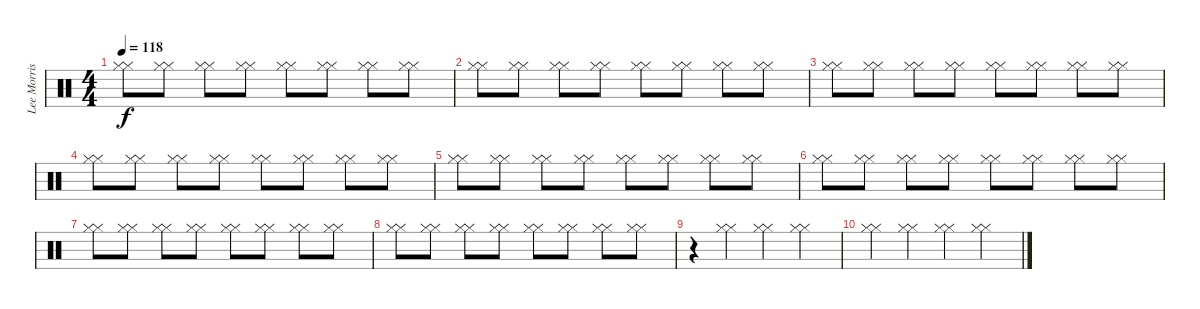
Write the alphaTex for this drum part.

\track ("Lee Morris" "Lee Morris") {instrument percussion}
\staff {score}
\articulation defaults
\ts (4 4)
\tempo 118
\clef neutral
\ks c
("Hi-Hat (closed)" "Hi-Hat (closed)").8{dy f} ("Hi-Hat (closed)" "Hi-Hat (closed)").8 ("Hi-Hat (closed)" "Hi-Hat (closed)").8 ("Hi-Hat (closed)" "Hi-Hat (closed)").8 ("Hi-Hat (closed)" "Hi-Hat (closed)").8 ("Hi-Hat (closed)" "Hi-Hat (closed)").8 ("Hi-Hat (closed)" "Hi-Hat (closed)").8 ("Hi-Hat (closed)" "Hi-Hat (closed)").8 |
("Hi-Hat (closed)" "Hi-Hat (closed)").8 ("Hi-Hat (closed)" "Hi-Hat (closed)").8 ("Hi-Hat (closed)" "Hi-Hat (closed)").8 ("Hi-Hat (closed)" "Hi-Hat (closed)").8 ("Hi-Hat (closed)" "Hi-Hat (closed)").8 ("Hi-Hat (closed)" "Hi-Hat (closed)").8 ("Hi-Hat (closed)" "Hi-Hat (closed)").8 ("Hi-Hat (closed)" "Hi-Hat (closed)").8 |
("Hi-Hat (closed)" "Hi-Hat (closed)").8 ("Hi-Hat (closed)" "Hi-Hat (closed)").8 ("Hi-Hat (closed)" "Hi-Hat (closed)").8 ("Hi-Hat (closed)" "Hi-Hat (closed)").8 ("Hi-Hat (closed)" "Hi-Hat (closed)").8 ("Hi-Hat (closed)" "Hi-Hat (closed)").8 ("Hi-Hat (closed)" "Hi-Hat (closed)").8 ("Hi-Hat (closed)" "Hi-Hat (closed)").8 |
("Hi-Hat (closed)" "Hi-Hat (closed)").8 ("Hi-Hat (closed)" "Hi-Hat (closed)").8 ("Hi-Hat (closed)" "Hi-Hat (closed)").8 ("Hi-Hat (closed)" "Hi-Hat (closed)").8 ("Hi-Hat (closed)" "Hi-Hat (closed)").8 ("Hi-Hat (closed)" "Hi-Hat (closed)").8 ("Hi-Hat (closed)" "Hi-Hat (closed)").8 ("Hi-Hat (closed)" "Hi-Hat (closed)").8 |
("Hi-Hat (closed)" "Hi-Hat (closed)").8 ("Hi-Hat (closed)" "Hi-Hat (closed)").8 ("Hi-Hat (closed)" "Hi-Hat (closed)").8 ("Hi-Hat (closed)" "Hi-Hat (closed)").8 ("Hi-Hat (closed)" "Hi-Hat (closed)").8 ("Hi-Hat (closed)" "Hi-Hat (closed)").8 ("Hi-Hat (closed)" "Hi-Hat (closed)").8 ("Hi-Hat (closed)" "Hi-Hat (closed)").8 |
("Hi-Hat (closed)" "Hi-Hat (closed)").8 ("Hi-Hat (closed)" "Hi-Hat (closed)").8 ("Hi-Hat (closed)" "Hi-Hat (closed)").8 ("Hi-Hat (closed)" "Hi-Hat (closed)").8 ("Hi-Hat (closed)" "Hi-Hat (closed)").8 ("Hi-Hat (closed)" "Hi-Hat (closed)").8 ("Hi-Hat (closed)" "Hi-Hat (closed)").8 ("Hi-Hat (closed)" "Hi-Hat (closed)").8 |
("Hi-Hat (closed)" "Hi-Hat (closed)").8 ("Hi-Hat (closed)" "Hi-Hat (closed)").8 ("Hi-Hat (closed)" "Hi-Hat (closed)").8 ("Hi-Hat (closed)" "Hi-Hat (closed)").8 ("Hi-Hat (closed)" "Hi-Hat (closed)").8 ("Hi-Hat (closed)" "Hi-Hat (closed)").8 ("Hi-Hat (closed)" "Hi-Hat (closed)").8 ("Hi-Hat (closed)" "Hi-Hat (closed)").8 |
("Hi-Hat (closed)" "Hi-Hat (closed)").8 ("Hi-Hat (closed)" "Hi-Hat (closed)").8 ("Hi-Hat (closed)" "Hi-Hat (closed)").8 ("Hi-Hat (closed)" "Hi-Hat (closed)").8 ("Hi-Hat (closed)" "Hi-Hat (closed)").8 ("Hi-Hat (closed)" "Hi-Hat (closed)").8 ("Hi-Hat (closed)" "Hi-Hat (closed)").8 ("Hi-Hat (closed)" "Hi-Hat (closed)").8 |
r.4 ("Hi-Hat (closed)" "Hi-Hat (closed)").4 ("Hi-Hat (closed)" "Hi-Hat (closed)").4 ("Hi-Hat (closed)" "Hi-Hat (closed)").4 |
("Hi-Hat (closed)" "Hi-Hat (closed)").4 ("Hi-Hat (closed)" "Hi-Hat (closed)").4 ("Hi-Hat (closed)" "Hi-Hat (closed)").4 ("Hi-Hat (closed)" "Hi-Hat (closed)").4
